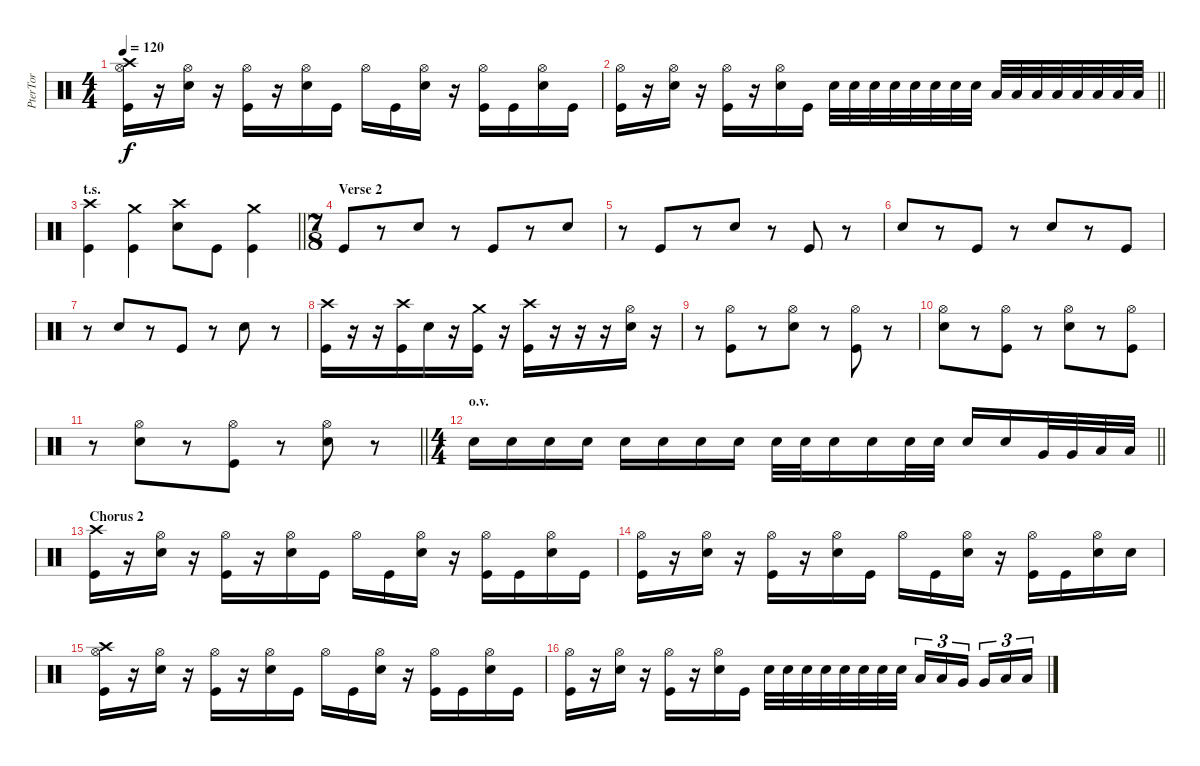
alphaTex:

\track ("PterTor" "PterTor") {instrument percussion}
\staff {score}
\articulation defaults
\ts (4 4)
\tempo 120
\clef neutral
\ks c
("Crash high (hit)" "Hi-Hat (open)" "Kick (hit)").16{dy f} r.16 ("Hi-Hat (open)" "Electric Snare (hit)").16 r.16 ("Hi-Hat (open)" "Kick (hit)").16 r.16 ("Hi-Hat (open)" "Electric Snare (hit)").16 "Kick (hit)".16 "Hi-Hat (open)".16 "Kick (hit)".16 ("Hi-Hat (open)" "Electric Snare (hit)").16 r.16 ("Hi-Hat (open)" "Kick (hit)").16 "Kick (hit)".16 ("Hi-Hat (open)" "Electric Snare (hit)").16 "Kick (hit)".16 |
\barLineRight lightlight
("Hi-Hat (open)" "Kick (hit)").16 r.16 ("Hi-Hat (open)" "Electric Snare (hit)").16 r.16 ("Hi-Hat (open)" "Kick (hit)").16 r.16 ("Hi-Hat (open)" "Electric Snare (hit)").16 "Kick (hit)".16 "Electric Snare (hit)".32 "Electric Snare (hit)".32 "Electric Snare (hit)".32 "Electric Snare (hit)".32 "Electric Snare (hit)".32 "Electric Snare (hit)".32 "Electric Snare (hit)".32 "Electric Snare (hit)".32 "Low Tom (hit)".32 "Low Tom (hit)".32 "Low Tom (hit)".32 "Low Tom (hit)".32 "Low Floor Tom (hit)".32 "Low Floor Tom (hit)".32 "Low Floor Tom (hit)".32 "Low Floor Tom (hit)".32 |
\section ("" "t.s.")
\barLineRight lightlight
("Crash high (hit)" "Kick (hit)").4 ("Crash medium (hit)" "Kick (hit)").4 ("Crash high (hit)" "Electric Snare (hit)").8 "Kick (hit)".8 ("Crash medium (hit)" "Kick (hit)").4 |
\ts (7 8)
\section ("" "Verse 2")
"Kick (hit)".8 r.8 "Electric Snare (hit)".8 r.8 "Kick (hit)".8 r.8 "Electric Snare (hit)".8 |
r.8 "Kick (hit)".8 r.8 "Electric Snare (hit)".8 r.8 "Kick (hit)".8 r.8 |
"Electric Snare (hit)".8 r.8 "Kick (hit)".8 r.8 "Electric Snare (hit)".8 r.8 "Kick (hit)".8 |
r.8 "Electric Snare (hit)".8 r.8 "Kick (hit)".8 r.8 "Electric Snare (hit)".8 r.8 |
("Crash high (hit)" "Kick (hit)").16 r.16 r.16 ("Crash high (hit)" "Kick (hit)").16 "Electric Snare (hit)".16 r.16 ("Crash medium (hit)" "Kick (hit)").16 r.16 ("Crash high (hit)" "Kick (hit)").16 r.16 r.16 r.16 ("Electric Snare (hit)" "Hi-Hat (open)").16 r.16 |
r.8 ("Hi-Hat (open)" "Kick (hit)").8 r.8 ("Electric Snare (hit)" "Hi-Hat (open)").8 r.8 ("Hi-Hat (open)" "Kick (hit)").8 r.8 |
("Electric Snare (hit)" "Hi-Hat (open)").8 r.8 ("Hi-Hat (open)" "Kick (hit)").8 r.8 ("Electric Snare (hit)" "Hi-Hat (open)").8 r.8 ("Hi-Hat (open)" "Kick (hit)").8 |
\barLineRight lightlight
r.8 ("Electric Snare (hit)" "Hi-Hat (open)").8 r.8 ("Hi-Hat (open)" "Kick (hit)").8 r.8 ("Electric Snare (hit)" "Hi-Hat (open)").8 r.8 |
\ts (4 4)
\section ("" "o.v.")
\barLineRight lightlight "Electric Snare (hit)".16 "Electric Snare (hit)".16 "Electric Snare (hit)".16 "Electric Snare (hit)".16 "Electric Snare (hit)".16 "Electric Snare (hit)".16 "Electric Snare (hit)".16 "Electric Snare (hit)".16 "Electric Snare (hit)".32 "Electric Snare (hit)".32 "Electric Snare (hit)".16 "Electric Snare (hit)".16 "Electric Snare (hit)".32 "Electric Snare (hit)".32 "Electric Snare (hit)".16 "Electric Snare (hit)".16 "Very Low Tom (hit)".32 "Very Low Tom (hit)".32 "Low Floor Tom (hit)".32 "Low Floor Tom (hit)".32
|
\section ("" "Chorus 2")
("Crash high (hit)" "Kick (hit)").16 r.16 ("Hi-Hat (open)" "Electric Snare (hit)").16 r.16 ("Hi-Hat (open)" "Kick (hit)").16 r.16 ("Hi-Hat (open)" "Electric Snare (hit)").16 "Kick (hit)".16 "Hi-Hat (open)".16 "Kick (hit)".16 ("Hi-Hat (open)" "Electric Snare (hit)").16 r.16 ("Hi-Hat (open)" "Kick (hit)").16 "Kick (hit)".16 ("Hi-Hat (open)" "Electric Snare (hit)").16 "Kick (hit)".16 |
("Hi-Hat (open)" "Kick (hit)").16 r.16 ("Hi-Hat (open)" "Electric Snare (hit)").16 r.16 ("Hi-Hat (open)" "Kick (hit)").16 r.16 ("Hi-Hat (open)" "Electric Snare (hit)").16 "Kick (hit)".16 "Hi-Hat (open)".16 "Kick (hit)".16 ("Hi-Hat (open)" "Electric Snare (hit)").16 r.16 ("Hi-Hat (open)" "Kick (hit)").16 "Kick (hit)".16 ("Hi-Hat (open)" "Electric Snare (hit)").16 "Electric Snare (hit)".16 |
("Crash high (hit)" "Hi-Hat (open)" "Kick (hit)").16 r.16 ("Hi-Hat (open)" "Electric Snare (hit)").16 r.16 ("Hi-Hat (open)" "Kick (hit)").16 r.16 ("Hi-Hat (open)" "Electric Snare (hit)").16 "Kick (hit)".16 "Hi-Hat (open)".16 "Kick (hit)".16 ("Hi-Hat (open)" "Electric Snare (hit)").16 r.16 ("Hi-Hat (open)" "Kick (hit)").16 "Kick (hit)".16 ("Hi-Hat (open)" "Electric Snare (hit)").16 "Kick (hit)".16 |
("Hi-Hat (open)" "Kick (hit)").16 r.16 ("Hi-Hat (open)" "Electric Snare (hit)").16 r.16 ("Hi-Hat (open)" "Kick (hit)").16 r.16 ("Hi-Hat (open)" "Electric Snare (hit)").16 "Kick (hit)".16 "Electric Snare (hit)".32 "Electric Snare (hit)".32 "Electric Snare (hit)".32 "Electric Snare (hit)".32 "Electric Snare (hit)".32 "Electric Snare (hit)".32 "Electric Snare (hit)".32 "Electric Snare (hit)".32 "Low Tom (hit)".16{tu (3 2)} "Low Tom (hit)".16{tu (3 2)} "Very Low Tom (hit)".16{tu (3 2) beam splitsecondary} "Very Low Tom (hit)".16{tu (3 2)} "Low Floor Tom (hit)".16{tu (3 2)} "Low Floor Tom (hit)".16{tu (3 2)}
